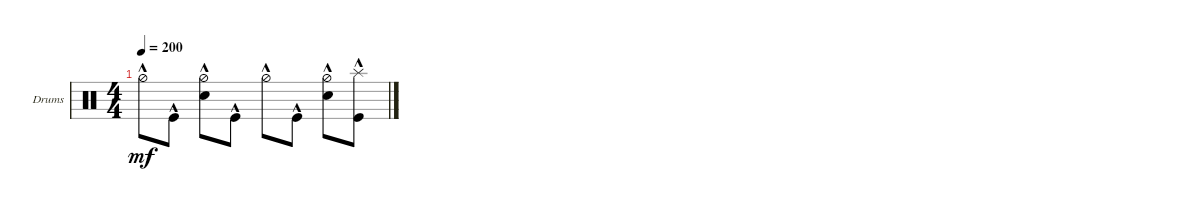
\defaultSystemsLayout 4
\bracketExtendMode groupsimilarinstruments
\firstSystemTrackNameOrientation horizontal
\otherSystemsTrackNameOrientation horizontal
\track ("Drumkit" "Drums") {instrument percussion}
\staff {score}
\articulation defaults
\ts (4 4)
\tempo 200
\clef neutral
\ks c "Hi-Hat (half)"{hac}.8{dy mf} "Kick (hit)"{hac}.8
("Snare (hit) 2"{hac} "Hi-Hat (half)"{hac}).8 "Kick (hit)"{hac}.8 "Hi-Hat (half)"{hac}.8 "Kick (hit)"{hac}.8 ("Snare (hit) 2"{hac} "Hi-Hat (half)"{hac}).8 ("Kick (hit)"{hac} "Splash (hit)"{hac}).8
